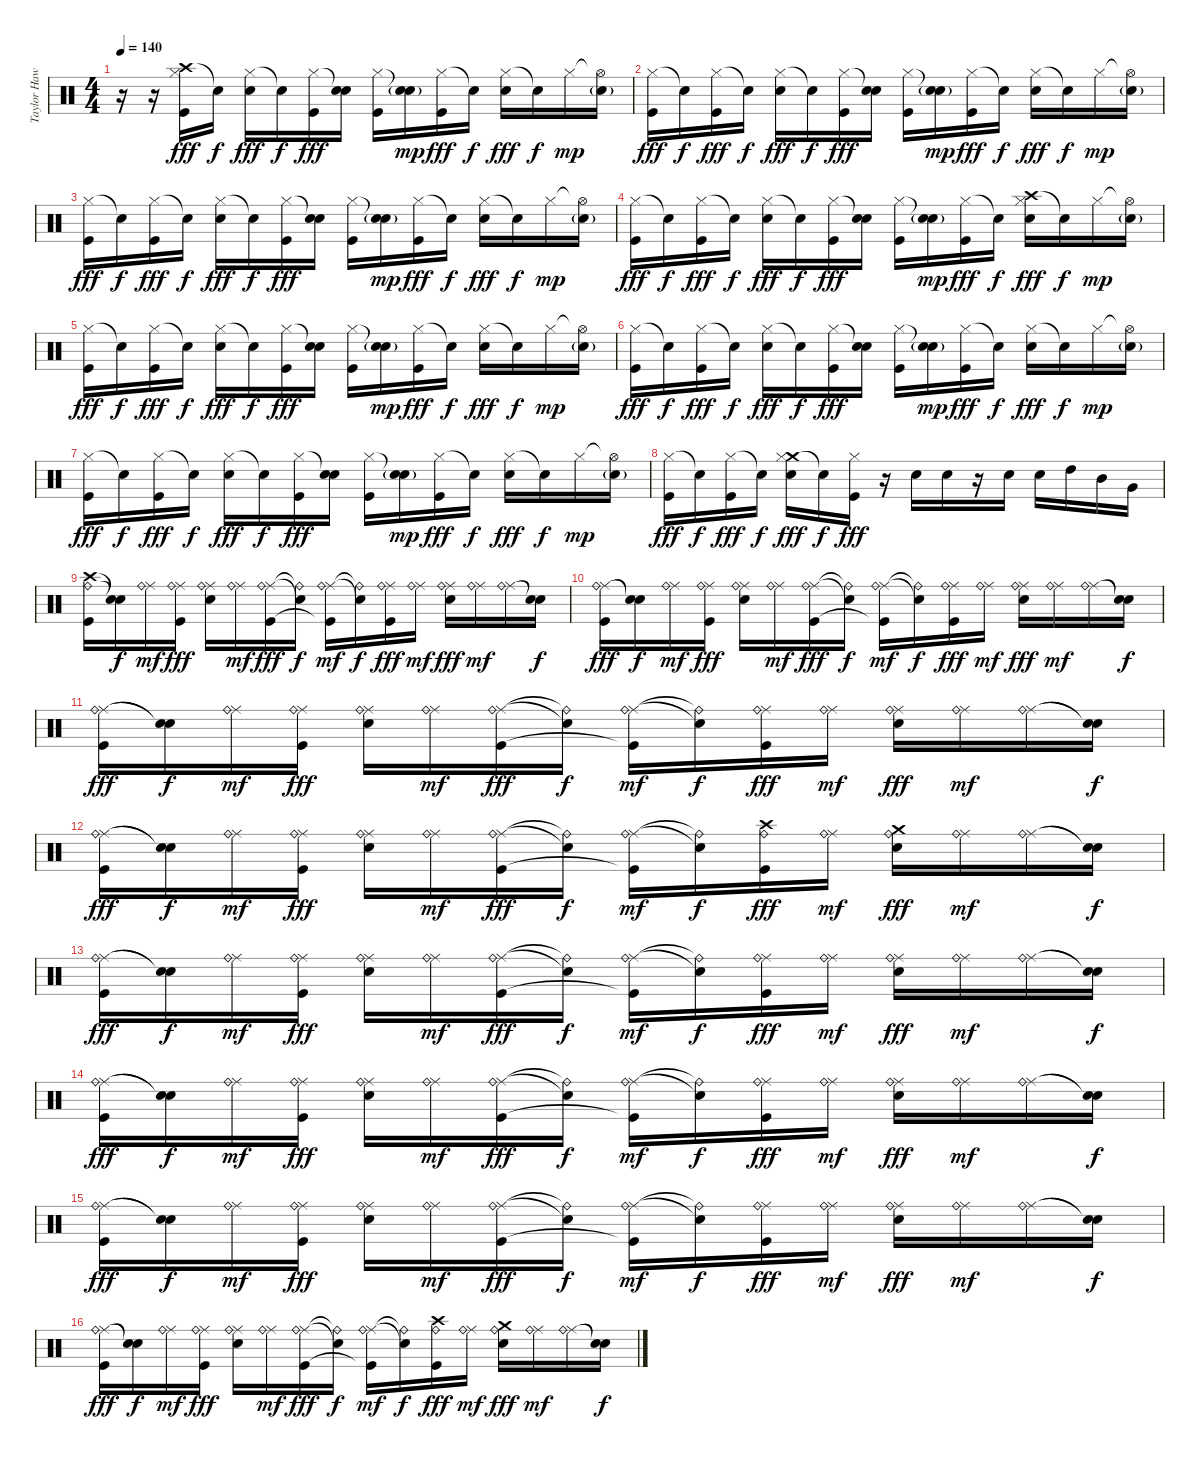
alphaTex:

\track ("Taylor Hawkings (Batería)" "Taylor Haw") {instrument percussion}
\staff {score}
\articulation defaults
\ts (4 4)
\tempo 140
\clef neutral
\ks c
r.16{dy fff} r.16 ("Crash high (hit)" "Hi-Hat (closed)" "Kick (hit)").16 "Snare (hit)"{t}.16{dy f} ("Hi-Hat (closed)" "Electric Snare (hit)").16{dy fff} "Snare (hit)"{t}.16{dy f} ("Hi-Hat (closed)" "Kick (hit)").16{dy fff} ("Snare (hit)"{t} "Electric Snare (hit)").16 ("Hi-Hat (closed)" "Kick (hit)").16 ("Snare (hit)"{t} "Electric Snare (hit)"{g}).16{dy mp} ("Hi-Hat (closed)" "Kick (hit)").16{dy fff} "Snare (hit)"{t}.16{dy f} ("Hi-Hat (closed)" "Electric Snare (hit)").16{dy fff} "Snare (hit)"{t}.16{dy f} "Hi-Hat (closed)".16{dy mp} ("Hi-Hat (open)"{t} "Electric Snare (hit)"{g}).16 |
("Hi-Hat (closed)" "Kick (hit)").16{dy fff} "Snare (hit)"{t}.16{dy f} ("Hi-Hat (closed)" "Kick (hit)").16{dy fff} "Snare (hit)"{t}.16{dy f} ("Hi-Hat (closed)" "Electric Snare (hit)").16{dy fff} "Snare (hit)"{t}.16{dy f} ("Hi-Hat (closed)" "Kick (hit)").16{dy fff} ("Snare (hit)"{t} "Electric Snare (hit)").16 ("Hi-Hat (closed)" "Kick (hit)").16 ("Snare (hit)"{t} "Electric Snare (hit)"{g}).16{dy mp} ("Hi-Hat (closed)" "Kick (hit)").16{dy fff} "Snare (hit)"{t}.16{dy f} ("Hi-Hat (closed)" "Electric Snare (hit)").16{dy fff} "Snare (hit)"{t}.16{dy f} "Hi-Hat (closed)".16{dy mp} ("Hi-Hat (open)"{t} "Electric Snare (hit)"{g}).16 |
("Hi-Hat (closed)" "Kick (hit)").16{dy fff} "Snare (hit)"{t}.16{dy f} ("Hi-Hat (closed)" "Kick (hit)").16{dy fff} "Snare (hit)"{t}.16{dy f} ("Hi-Hat (closed)" "Electric Snare (hit)").16{dy fff} "Snare (hit)"{t}.16{dy f} ("Hi-Hat (closed)" "Kick (hit)").16{dy fff} ("Snare (hit)"{t} "Electric Snare (hit)").16 ("Hi-Hat (closed)" "Kick (hit)").16 ("Snare (hit)"{t} "Electric Snare (hit)"{g}).16{dy mp} ("Hi-Hat (closed)" "Kick (hit)").16{dy fff} "Snare (hit)"{t}.16{dy f} ("Hi-Hat (closed)" "Electric Snare (hit)").16{dy fff} "Snare (hit)"{t}.16{dy f} "Hi-Hat (closed)".16{dy mp} ("Hi-Hat (open)"{t} "Electric Snare (hit)"{g}).16 |
("Hi-Hat (closed)" "Kick (hit)").16{dy fff} "Snare (hit)"{t}.16{dy f} ("Hi-Hat (closed)" "Kick (hit)").16{dy fff} "Snare (hit)"{t}.16{dy f} ("Hi-Hat (closed)" "Electric Snare (hit)").16{dy fff} "Snare (hit)"{t}.16{dy f} ("Hi-Hat (closed)" "Kick (hit)").16{dy fff} ("Snare (hit)"{t} "Electric Snare (hit)").16 ("Hi-Hat (closed)" "Kick (hit)").16 ("Snare (hit)"{t} "Electric Snare (hit)"{g}).16{dy mp} ("Hi-Hat (closed)" "Kick (hit)").16{dy fff} "Snare (hit)"{t}.16{dy f} ("Crash high (hit)" "Hi-Hat (closed)" "Electric Snare (hit)").16{dy fff} "Snare (hit)"{t}.16{dy f} "Hi-Hat (closed)".16{dy mp} ("Hi-Hat (open)"{t} "Electric Snare (hit)"{g}).16 |
("Hi-Hat (closed)" "Kick (hit)").16{dy fff} "Snare (hit)"{t}.16{dy f} ("Hi-Hat (closed)" "Kick (hit)").16{dy fff} "Snare (hit)"{t}.16{dy f} ("Hi-Hat (closed)" "Electric Snare (hit)").16{dy fff} "Snare (hit)"{t}.16{dy f} ("Hi-Hat (closed)" "Kick (hit)").16{dy fff} ("Snare (hit)"{t} "Electric Snare (hit)").16 ("Hi-Hat (closed)" "Kick (hit)").16 ("Snare (hit)"{t} "Electric Snare (hit)"{g}).16{dy mp} ("Hi-Hat (closed)" "Kick (hit)").16{dy fff} "Snare (hit)"{t}.16{dy f} ("Hi-Hat (closed)" "Electric Snare (hit)").16{dy fff} "Snare (hit)"{t}.16{dy f} "Hi-Hat (closed)".16{dy mp} ("Hi-Hat (open)"{t} "Electric Snare (hit)"{g}).16 |
("Hi-Hat (closed)" "Kick (hit)").16{dy fff} "Snare (hit)"{t}.16{dy f} ("Hi-Hat (closed)" "Kick (hit)").16{dy fff} "Snare (hit)"{t}.16{dy f} ("Hi-Hat (closed)" "Electric Snare (hit)").16{dy fff} "Snare (hit)"{t}.16{dy f} ("Hi-Hat (closed)" "Kick (hit)").16{dy fff} ("Snare (hit)"{t} "Electric Snare (hit)").16 ("Hi-Hat (closed)" "Kick (hit)").16 ("Snare (hit)"{t} "Electric Snare (hit)"{g}).16{dy mp} ("Hi-Hat (closed)" "Kick (hit)").16{dy fff} "Snare (hit)"{t}.16{dy f} ("Hi-Hat (closed)" "Electric Snare (hit)").16{dy fff} "Snare (hit)"{t}.16{dy f} "Hi-Hat (closed)".16{dy mp} ("Hi-Hat (open)"{t} "Electric Snare (hit)"{g}).16 |
("Hi-Hat (closed)" "Kick (hit)").16{dy fff} "Snare (hit)"{t}.16{dy f} ("Hi-Hat (closed)" "Kick (hit)").16{dy fff} "Snare (hit)"{t}.16{dy f} ("Hi-Hat (closed)" "Electric Snare (hit)").16{dy fff} "Snare (hit)"{t}.16{dy f} ("Hi-Hat (closed)" "Kick (hit)").16{dy fff} ("Snare (hit)"{t} "Electric Snare (hit)").16 ("Hi-Hat (closed)" "Kick (hit)").16 ("Snare (hit)"{t} "Electric Snare (hit)"{g}).16{dy mp} ("Hi-Hat (closed)" "Kick (hit)").16{dy fff} "Snare (hit)"{t}.16{dy f} ("Hi-Hat (closed)" "Electric Snare (hit)").16{dy fff} "Snare (hit)"{t}.16{dy f} "Hi-Hat (closed)".16{dy mp} ("Hi-Hat (open)"{t} "Electric Snare (hit)"{g}).16 |
("Hi-Hat (closed)" "Kick (hit)").16{dy fff} "Snare (hit)"{t}.16{dy f} ("Hi-Hat (closed)" "Kick (hit)").16{dy fff} "Snare (hit)"{t}.16{dy f} ("Crash medium (hit)" "Hi-Hat (closed)" "Electric Snare (hit)").16{dy fff} "Snare (hit)"{t}.16{dy f} ("Hi-Hat (closed)" "Kick (hit)").16{dy fff} r.16 "Electric Snare (hit)".16 "Electric Snare (hit)".16 r.16 "Electric Snare (hit)".16 "Electric Snare (hit)".16 "High Tom (hit)".16 "Mid Tom (hit)".16 "Very Low Tom (hit)".16 |
("Crash high (hit)" "Ride (bell)" "Kick (hit)").16 ("Snare (hit)"{t} "Snare (hit)"{t}).16{dy f} ("Ride (middle)" "Ride (bell)").16{dy mf} ("Ride (middle)" "Ride (bell)" "Kick (hit)").16{dy fff} ("Ride (middle)" "Ride (bell)" "Electric Snare (hit)").16 ("Ride (middle)" "Ride (bell)").16{dy mf} ("Ride (middle)" "Ride (bell)" "Kick (hit)").16{dy fff} ("Snare (hit)"{t} "Ride (bell)"{t}).16{dy f} ("Ride (middle)" "Ride (bell)" "Kick (hit)"{t}).16{dy mf} ("Snare (hit)"{t} "Ride (bell)"{t}).16{dy f} ("Ride (middle)" "Ride (bell)" "Kick (hit)").16{dy fff} ("Ride (middle)" "Ride (bell)").16{dy mf} ("Ride (middle)" "Ride (bell)" "Electric Snare (hit)").16{dy fff} ("Ride (middle)" "Ride (bell)").16{dy mf} ("Ride (middle)" "Ride (bell)").16 ("Snare (hit)"{t} "Snare (hit)"{t}).16{dy f} |
("Ride (middle)" "Ride (bell)" "Kick (hit)").16{dy fff} ("Snare (hit)"{t} "Snare (hit)"{t}).16{dy f} ("Ride (middle)" "Ride (bell)").16{dy mf} ("Ride (middle)" "Ride (bell)" "Kick (hit)").16{dy fff} ("Ride (middle)" "Ride (bell)" "Electric Snare (hit)").16 ("Ride (middle)" "Ride (bell)").16{dy mf} ("Ride (middle)" "Ride (bell)" "Kick (hit)").16{dy fff} ("Snare (hit)"{t} "Ride (bell)"{t}).16{dy f} ("Ride (middle)" "Ride (bell)" "Kick (hit)"{t}).16{dy mf} ("Snare (hit)"{t} "Ride (bell)"{t}).16{dy f} ("Ride (middle)" "Ride (bell)" "Kick (hit)").16{dy fff} ("Ride (middle)" "Ride (bell)").16{dy mf} ("Ride (middle)" "Ride (bell)" "Electric Snare (hit)").16{dy fff} ("Ride (middle)" "Ride (bell)").16{dy mf} ("Ride (middle)" "Ride (bell)").16 ("Snare (hit)"{t} "Snare (hit)"{t}).16{dy f} |
("Ride (middle)" "Ride (bell)" "Kick (hit)").16{dy fff} ("Snare (hit)"{t} "Snare (hit)"{t}).16{dy f} ("Ride (middle)" "Ride (bell)").16{dy mf} ("Ride (middle)" "Ride (bell)" "Kick (hit)").16{dy fff} ("Ride (middle)" "Ride (bell)" "Electric Snare (hit)").16 ("Ride (middle)" "Ride (bell)").16{dy mf} ("Ride (middle)" "Ride (bell)" "Kick (hit)").16{dy fff} ("Snare (hit)"{t} "Ride (bell)"{t}).16{dy f} ("Ride (middle)" "Ride (bell)" "Kick (hit)"{t}).16{dy mf} ("Snare (hit)"{t} "Ride (bell)"{t}).16{dy f} ("Ride (middle)" "Ride (bell)" "Kick (hit)").16{dy fff} ("Ride (middle)" "Ride (bell)").16{dy mf} ("Ride (middle)" "Ride (bell)" "Electric Snare (hit)").16{dy fff} ("Ride (middle)" "Ride (bell)").16{dy mf} ("Ride (middle)" "Ride (bell)").16 ("Snare (hit)"{t} "Snare (hit)"{t}).16{dy f} |
("Ride (middle)" "Ride (bell)" "Kick (hit)").16{dy fff} ("Snare (hit)"{t} "Snare (hit)"{t}).16{dy f} ("Ride (middle)" "Ride (bell)").16{dy mf} ("Ride (middle)" "Ride (bell)" "Kick (hit)").16{dy fff} ("Ride (middle)" "Ride (bell)" "Electric Snare (hit)").16 ("Ride (middle)" "Ride (bell)").16{dy mf} ("Ride (middle)" "Ride (bell)" "Kick (hit)").16{dy fff} ("Snare (hit)"{t} "Ride (bell)"{t}).16{dy f} ("Ride (middle)" "Ride (bell)" "Kick (hit)"{t}).16{dy mf} ("Snare (hit)"{t} "Ride (bell)"{t}).16{dy f} ("Crash high (hit)" "Ride (bell)" "Kick (hit)").16{dy fff} ("Ride (middle)" "Ride (bell)").16{dy mf} ("Crash medium (hit)" "Ride (bell)" "Electric Snare (hit)").16{dy fff} ("Ride (middle)" "Ride (bell)").16{dy mf} ("Ride (middle)" "Ride (bell)").16 ("Snare (hit)"{t} "Snare (hit)"{t}).16{dy f} |
("Ride (middle)" "Ride (bell)" "Kick (hit)").16{dy fff} ("Snare (hit)"{t} "Snare (hit)"{t}).16{dy f} ("Ride (middle)" "Ride (bell)").16{dy mf} ("Ride (middle)" "Ride (bell)" "Kick (hit)").16{dy fff} ("Ride (middle)" "Ride (bell)" "Electric Snare (hit)").16 ("Ride (middle)" "Ride (bell)").16{dy mf} ("Ride (middle)" "Ride (bell)" "Kick (hit)").16{dy fff} ("Snare (hit)"{t} "Ride (bell)"{t}).16{dy f} ("Ride (middle)" "Ride (bell)" "Kick (hit)"{t}).16{dy mf} ("Snare (hit)"{t} "Ride (bell)"{t}).16{dy f} ("Ride (middle)" "Ride (bell)" "Kick (hit)").16{dy fff} ("Ride (middle)" "Ride (bell)").16{dy mf} ("Ride (middle)" "Ride (bell)" "Electric Snare (hit)").16{dy fff} ("Ride (middle)" "Ride (bell)").16{dy mf} ("Ride (middle)" "Ride (bell)").16 ("Snare (hit)"{t} "Snare (hit)"{t}).16{dy f} |
("Ride (middle)" "Ride (bell)" "Kick (hit)").16{dy fff} ("Snare (hit)"{t} "Snare (hit)"{t}).16{dy f} ("Ride (middle)" "Ride (bell)").16{dy mf} ("Ride (middle)" "Ride (bell)" "Kick (hit)").16{dy fff} ("Ride (middle)" "Ride (bell)" "Electric Snare (hit)").16 ("Ride (middle)" "Ride (bell)").16{dy mf} ("Ride (middle)" "Ride (bell)" "Kick (hit)").16{dy fff} ("Snare (hit)"{t} "Ride (bell)"{t}).16{dy f} ("Ride (middle)" "Ride (bell)" "Kick (hit)"{t}).16{dy mf} ("Snare (hit)"{t} "Ride (bell)"{t}).16{dy f} ("Ride (middle)" "Ride (bell)" "Kick (hit)").16{dy fff} ("Ride (middle)" "Ride (bell)").16{dy mf} ("Ride (middle)" "Ride (bell)" "Electric Snare (hit)").16{dy fff} ("Ride (middle)" "Ride (bell)").16{dy mf} ("Ride (middle)" "Ride (bell)").16 ("Snare (hit)"{t} "Snare (hit)"{t}).16{dy f} |
("Ride (middle)" "Ride (bell)" "Kick (hit)").16{dy fff} ("Snare (hit)"{t} "Snare (hit)"{t}).16{dy f} ("Ride (middle)" "Ride (bell)").16{dy mf} ("Ride (middle)" "Ride (bell)" "Kick (hit)").16{dy fff} ("Ride (middle)" "Ride (bell)" "Electric Snare (hit)").16 ("Ride (middle)" "Ride (bell)").16{dy mf} ("Ride (middle)" "Ride (bell)" "Kick (hit)").16{dy fff} ("Snare (hit)"{t} "Ride (bell)"{t}).16{dy f} ("Ride (middle)" "Ride (bell)" "Kick (hit)"{t}).16{dy mf} ("Snare (hit)"{t} "Ride (bell)"{t}).16{dy f} ("Ride (middle)" "Ride (bell)" "Kick (hit)").16{dy fff} ("Ride (middle)" "Ride (bell)").16{dy mf} ("Ride (middle)" "Ride (bell)" "Electric Snare (hit)").16{dy fff} ("Ride (middle)" "Ride (bell)").16{dy mf} ("Ride (middle)" "Ride (bell)").16 ("Snare (hit)"{t} "Snare (hit)"{t}).16{dy f} |
("Ride (middle)" "Ride (bell)" "Kick (hit)").16{dy fff} ("Snare (hit)"{t} "Snare (hit)"{t}).16{dy f} ("Ride (middle)" "Ride (bell)").16{dy mf} ("Ride (middle)" "Ride (bell)" "Kick (hit)").16{dy fff} ("Ride (middle)" "Ride (bell)" "Electric Snare (hit)").16 ("Ride (middle)" "Ride (bell)").16{dy mf} ("Ride (middle)" "Ride (bell)" "Kick (hit)").16{dy fff} ("Snare (hit)"{t} "Ride (bell)"{t}).16{dy f} ("Ride (middle)" "Ride (bell)" "Kick (hit)"{t}).16{dy mf} ("Snare (hit)"{t} "Ride (bell)"{t}).16{dy f} ("Crash high (hit)" "Ride (bell)" "Kick (hit)").16{dy fff} ("Ride (middle)" "Ride (bell)").16{dy mf} ("Crash medium (hit)" "Ride (bell)" "Electric Snare (hit)").16{dy fff} ("Ride (middle)" "Ride (bell)").16{dy mf} ("Ride (middle)" "Ride (bell)").16 ("Snare (hit)"{t} "Snare (hit)"{t}).16{dy f}
